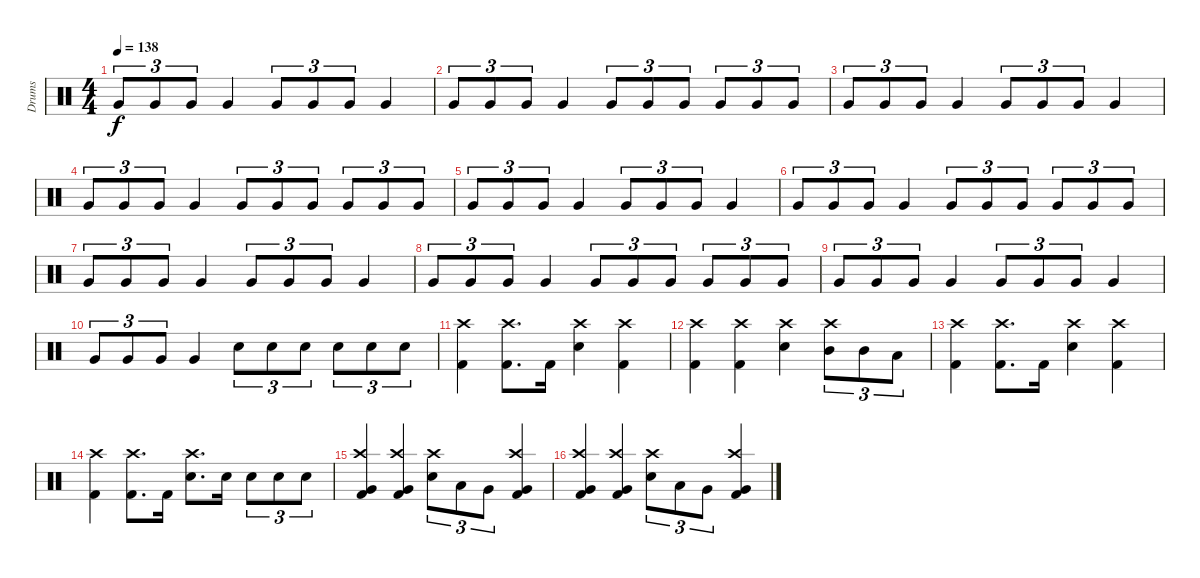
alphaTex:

\track ("Drums" "Drums") {instrument percussion}
\staff {score}
\articulation defaults
\ts (4 4)
\tempo 138
\clef neutral
\ks c "Very Low Tom (hit)".8{tu (3 2) dy f} "Very Low Tom (hit)".8{tu (3 2)} "Very Low Tom (hit)".8{tu (3 2)} "Very Low Tom (hit)".4 "Very Low Tom (hit)".8{tu (3 2)} "Very Low Tom (hit)".8{tu (3 2)} "Very Low Tom (hit)".8{tu (3 2)} "Very Low Tom (hit)".4
|
"Very Low Tom (hit)".8{tu (3 2)} "Very Low Tom (hit)".8{tu (3 2)} "Very Low Tom (hit)".8{tu (3 2)} "Very Low Tom (hit)".4 "Very Low Tom (hit)".8{tu (3 2)} "Very Low Tom (hit)".8{tu (3 2)} "Very Low Tom (hit)".8{tu (3 2)} "Very Low Tom (hit)".8{tu (3 2)} "Very Low Tom (hit)".8{tu (3 2)} "Very Low Tom (hit)".8{tu (3 2)} |
"Very Low Tom (hit)".8{tu (3 2)} "Very Low Tom (hit)".8{tu (3 2)} "Very Low Tom (hit)".8{tu (3 2)} "Very Low Tom (hit)".4 "Very Low Tom (hit)".8{tu (3 2)} "Very Low Tom (hit)".8{tu (3 2)} "Very Low Tom (hit)".8{tu (3 2)} "Very Low Tom (hit)".4 |
"Very Low Tom (hit)".8{tu (3 2)} "Very Low Tom (hit)".8{tu (3 2)} "Very Low Tom (hit)".8{tu (3 2)} "Very Low Tom (hit)".4 "Very Low Tom (hit)".8{tu (3 2)} "Very Low Tom (hit)".8{tu (3 2)} "Very Low Tom (hit)".8{tu (3 2)} "Very Low Tom (hit)".8{tu (3 2)} "Very Low Tom (hit)".8{tu (3 2)} "Very Low Tom (hit)".8{tu (3 2)} |
"Very Low Tom (hit)".8{tu (3 2)} "Very Low Tom (hit)".8{tu (3 2)} "Very Low Tom (hit)".8{tu (3 2)} "Very Low Tom (hit)".4 "Very Low Tom (hit)".8{tu (3 2)} "Very Low Tom (hit)".8{tu (3 2)} "Very Low Tom (hit)".8{tu (3 2)} "Very Low Tom (hit)".4 |
"Very Low Tom (hit)".8{tu (3 2)} "Very Low Tom (hit)".8{tu (3 2)} "Very Low Tom (hit)".8{tu (3 2)} "Very Low Tom (hit)".4 "Very Low Tom (hit)".8{tu (3 2)} "Very Low Tom (hit)".8{tu (3 2)} "Very Low Tom (hit)".8{tu (3 2)} "Very Low Tom (hit)".8{tu (3 2)} "Very Low Tom (hit)".8{tu (3 2)} "Very Low Tom (hit)".8{tu (3 2)} |
"Very Low Tom (hit)".8{tu (3 2)} "Very Low Tom (hit)".8{tu (3 2)} "Very Low Tom (hit)".8{tu (3 2)} "Very Low Tom (hit)".4 "Very Low Tom (hit)".8{tu (3 2)} "Very Low Tom (hit)".8{tu (3 2)} "Very Low Tom (hit)".8{tu (3 2)} "Very Low Tom (hit)".4 |
"Very Low Tom (hit)".8{tu (3 2)} "Very Low Tom (hit)".8{tu (3 2)} "Very Low Tom (hit)".8{tu (3 2)} "Very Low Tom (hit)".4 "Very Low Tom (hit)".8{tu (3 2)} "Very Low Tom (hit)".8{tu (3 2)} "Very Low Tom (hit)".8{tu (3 2)} "Very Low Tom (hit)".8{tu (3 2)} "Very Low Tom (hit)".8{tu (3 2)} "Very Low Tom (hit)".8{tu (3 2)} |
"Very Low Tom (hit)".8{tu (3 2)} "Very Low Tom (hit)".8{tu (3 2)} "Very Low Tom (hit)".8{tu (3 2)} "Very Low Tom (hit)".4 "Very Low Tom (hit)".8{tu (3 2)} "Very Low Tom (hit)".8{tu (3 2)} "Very Low Tom (hit)".8{tu (3 2)} "Very Low Tom (hit)".4 |
"Very Low Tom (hit)".8{tu (3 2)} "Very Low Tom (hit)".8{tu (3 2)} "Very Low Tom (hit)".8{tu (3 2)} "Very Low Tom (hit)".4 "Snare (hit) 2".8{tu (3 2)} "Snare (hit) 2".8{tu (3 2)} "Snare (hit) 2".8{tu (3 2)} "Snare (hit) 2".8{tu (3 2)} "Snare (hit) 2".8{tu (3 2)} "Snare (hit) 2".8{tu (3 2)} |
("Crash high (hit)" "Kick (hit) 2").4 ("Crash high (hit)" "Kick (hit) 2").8{d} "Kick (hit) 2".16 ("Crash high (hit)" "Snare (hit) 2").4 ("Crash high (hit)" "Kick (hit) 2").4 |
("Crash high (hit)" "Kick (hit) 2").4 ("Crash high (hit)" "Kick (hit) 2").4 ("Crash high (hit)" "Snare (hit) 2").4 ("Crash high (hit)" "Mid Tom (hit)").8{tu (3 2)} "Mid Tom (hit)".8{tu (3 2)} "Low Tom (hit)".8{tu (3 2)} |
("Crash high (hit)" "Kick (hit) 2").4 ("Crash high (hit)" "Kick (hit) 2").8{d} "Kick (hit) 2".16 ("Crash high (hit)" "Snare (hit) 2").4 ("Crash high (hit)" "Kick (hit) 2").4 |
("Crash high (hit)" "Kick (hit) 2").4 ("Crash high (hit)" "Kick (hit) 2").8{d} "Kick (hit) 2".16 ("Crash high (hit)" "Snare (hit) 2").8{d} "Snare (hit) 2".16 "Snare (hit) 2".8{tu (3 2)} "Snare (hit) 2".8{tu (3 2)} "Snare (hit) 2".8{tu (3 2)} |
("Crash high (hit)" "Very Low Tom (hit)" "Kick (hit) 2").4 ("Crash high (hit)" "Very Low Tom (hit)" "Kick (hit) 2").4 ("Crash high (hit)" "Snare (hit) 2").8{tu (3 2)} "Low Tom (hit)".8{tu (3 2)} "Very Low Tom (hit)".8{tu (3 2)} ("Crash high (hit)" "Very Low Tom (hit)" "Kick (hit) 2").4 |
("Crash high (hit)" "Very Low Tom (hit)" "Kick (hit) 2").4 ("Crash high (hit)" "Very Low Tom (hit)" "Kick (hit) 2").4 ("Crash high (hit)" "Snare (hit) 2").8{tu (3 2)} "Low Tom (hit)".8{tu (3 2)} "Very Low Tom (hit)".8{tu (3 2)} ("Crash high (hit)" "Very Low Tom (hit)" "Kick (hit) 2").4
